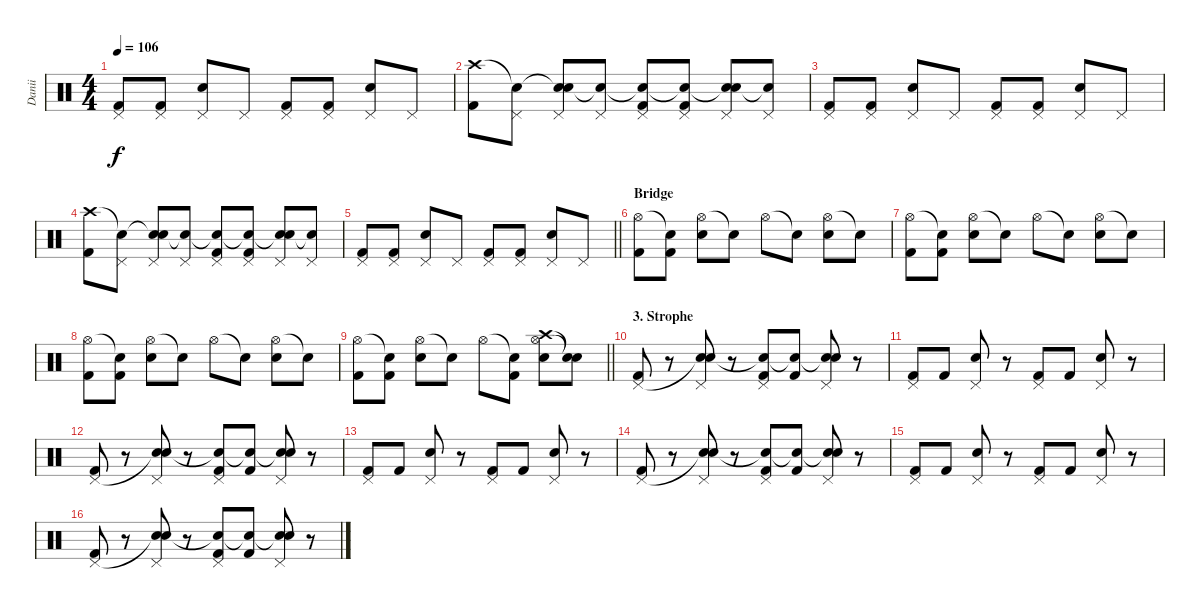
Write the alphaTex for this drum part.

\track ("Danii" "Danii") {instrument percussion}
\staff {score}
\articulation defaults
\ts (4 4)
\tempo 106
\clef neutral
\ks c
("Pedal Hi-Hat (hit)" "Kick (hit) 2").8{dy f} ("Pedal Hi-Hat (hit)" "Kick (hit) 2").8 ("Pedal Hi-Hat (hit)" "Snare (hit) 2").8 "Pedal Hi-Hat (hit)".8 ("Pedal Hi-Hat (hit)" "Kick (hit) 2").8 ("Pedal Hi-Hat (hit)" "Kick (hit) 2").8 ("Pedal Hi-Hat (hit)" "Snare (hit) 2").8 "Pedal Hi-Hat (hit)".8 |
("Crash high (hit)" "Kick (hit) 2").8{volume 16} ("Snare (hit)"{t} "Pedal Hi-Hat (hit)").8 ("Snare (hit)"{t} "Pedal Hi-Hat (hit)" "Snare (hit) 2").8 ("Snare (hit)"{t} "Pedal Hi-Hat (hit)").8 ("Snare (hit)"{t} "Pedal Hi-Hat (hit)" "Kick (hit) 2").8 ("Snare (hit)"{t} "Pedal Hi-Hat (hit)" "Kick (hit) 2").8 ("Snare (hit)"{t} "Pedal Hi-Hat (hit)" "Snare (hit) 2").8 ("Snare (hit)"{t} "Pedal Hi-Hat (hit)").8 |
("Pedal Hi-Hat (hit)" "Kick (hit) 2").8 ("Pedal Hi-Hat (hit)" "Kick (hit) 2").8 ("Pedal Hi-Hat (hit)" "Snare (hit) 2").8 "Pedal Hi-Hat (hit)".8 ("Pedal Hi-Hat (hit)" "Kick (hit) 2").8 ("Pedal Hi-Hat (hit)" "Kick (hit) 2").8 ("Pedal Hi-Hat (hit)" "Snare (hit) 2").8 "Pedal Hi-Hat (hit)".8 |
("Crash high (hit)" "Kick (hit) 2").8{volume 16} ("Snare (hit)"{t} "Pedal Hi-Hat (hit)").8 ("Snare (hit)"{t} "Pedal Hi-Hat (hit)" "Snare (hit) 2").8 ("Snare (hit)"{t} "Pedal Hi-Hat (hit)").8 ("Snare (hit)"{t} "Pedal Hi-Hat (hit)" "Kick (hit) 2").8 ("Snare (hit)"{t} "Pedal Hi-Hat (hit)" "Kick (hit) 2").8 ("Snare (hit)"{t} "Pedal Hi-Hat (hit)" "Snare (hit) 2").8 ("Snare (hit)"{t} "Pedal Hi-Hat (hit)").8 |
\barLineRight lightlight
("Pedal Hi-Hat (hit)" "Kick (hit) 2").8 ("Pedal Hi-Hat (hit)" "Kick (hit) 2").8 ("Pedal Hi-Hat (hit)" "Snare (hit) 2").8 "Pedal Hi-Hat (hit)".8 ("Pedal Hi-Hat (hit)" "Kick (hit) 2").8 ("Pedal Hi-Hat (hit)" "Kick (hit) 2").8 ("Pedal Hi-Hat (hit)" "Snare (hit) 2").8 "Pedal Hi-Hat (hit)".8 |
\section ("" "Bridge")
("Hi-Hat (open)" "Kick (hit) 2").8 ("Snare (hit)"{t} "Kick (hit) 2").8 ("Hi-Hat (open)" "Snare (hit) 2").8 "Snare (hit)"{t}.8 "Hi-Hat (open)".8 "Snare (hit)"{t}.8 ("Hi-Hat (open)" "Snare (hit) 2").8 "Snare (hit)"{t}.8 |
("Hi-Hat (open)" "Kick (hit) 2").8 ("Snare (hit)"{t} "Kick (hit) 2").8 ("Hi-Hat (open)" "Snare (hit) 2").8 "Snare (hit)"{t}.8 "Hi-Hat (open)".8 "Snare (hit)"{t}.8 ("Hi-Hat (open)" "Snare (hit) 2").8 "Snare (hit)"{t}.8 |
("Hi-Hat (open)" "Kick (hit) 2").8 ("Snare (hit)"{t} "Kick (hit) 2").8 ("Hi-Hat (open)" "Snare (hit) 2").8 "Snare (hit)"{t}.8 "Hi-Hat (open)".8 "Snare (hit)"{t}.8 ("Hi-Hat (open)" "Snare (hit) 2").8 "Snare (hit)"{t}.8 |
\barLineRight lightlight
("Hi-Hat (open)" "Kick (hit) 2").8 ("Snare (hit)"{t} "Kick (hit) 2").8 ("Hi-Hat (open)" "Snare (hit) 2").8 "Snare (hit)"{t}.8 "Hi-Hat (open)".8 ("Snare (hit)"{t} "Kick (hit) 2").8 ("Crash high (hit)" "Hi-Hat (open)" "Snare (hit) 2").8 ("Snare (hit)"{t} "Snare (hit)"{t}).8 |
\section ("" "3. Strophe")
("Pedal Hi-Hat (hit)" "Kick (hit) 2").8{volume 16} r.8 ("Snare (hit)"{t} "Pedal Hi-Hat (hit)" "Snare (hit) 2").8 r.8 ("Snare (hit)"{t} "Pedal Hi-Hat (hit)" "Kick (hit) 2").8 ("Snare (hit)"{t} "Kick (hit) 2").8 ("Snare (hit)"{t} "Pedal Hi-Hat (hit)" "Snare (hit) 2").8 r.8 |
("Pedal Hi-Hat (hit)" "Kick (hit) 2").8 "Kick (hit) 2".8 ("Pedal Hi-Hat (hit)" "Snare (hit) 2").8 r.8 ("Pedal Hi-Hat (hit)" "Kick (hit) 2").8 "Kick (hit) 2".8 ("Pedal Hi-Hat (hit)" "Snare (hit) 2").8 r.8 |
("Pedal Hi-Hat (hit)" "Kick (hit) 2").8{volume 16} r.8 ("Snare (hit)"{t} "Pedal Hi-Hat (hit)" "Snare (hit) 2").8 r.8 ("Snare (hit)"{t} "Pedal Hi-Hat (hit)" "Kick (hit) 2").8 ("Snare (hit)"{t} "Kick (hit) 2").8 ("Snare (hit)"{t} "Pedal Hi-Hat (hit)" "Snare (hit) 2").8 r.8 |
("Pedal Hi-Hat (hit)" "Kick (hit) 2").8 "Kick (hit) 2".8 ("Pedal Hi-Hat (hit)" "Snare (hit) 2").8 r.8 ("Pedal Hi-Hat (hit)" "Kick (hit) 2").8 "Kick (hit) 2".8 ("Pedal Hi-Hat (hit)" "Snare (hit) 2").8 r.8 |
("Pedal Hi-Hat (hit)" "Kick (hit) 2").8{volume 16} r.8 ("Snare (hit)"{t} "Pedal Hi-Hat (hit)" "Snare (hit) 2").8 r.8 ("Snare (hit)"{t} "Pedal Hi-Hat (hit)" "Kick (hit) 2").8 ("Snare (hit)"{t} "Kick (hit) 2").8 ("Snare (hit)"{t} "Pedal Hi-Hat (hit)" "Snare (hit) 2").8 r.8 |
("Pedal Hi-Hat (hit)" "Kick (hit) 2").8 "Kick (hit) 2".8 ("Pedal Hi-Hat (hit)" "Snare (hit) 2").8 r.8 ("Pedal Hi-Hat (hit)" "Kick (hit) 2").8 "Kick (hit) 2".8 ("Pedal Hi-Hat (hit)" "Snare (hit) 2").8 r.8 |
("Pedal Hi-Hat (hit)" "Kick (hit) 2").8{volume 16} r.8 ("Snare (hit)"{t} "Pedal Hi-Hat (hit)" "Snare (hit) 2").8 r.8 ("Snare (hit)"{t} "Pedal Hi-Hat (hit)" "Kick (hit) 2").8 ("Snare (hit)"{t} "Kick (hit) 2").8 ("Snare (hit)"{t} "Pedal Hi-Hat (hit)" "Snare (hit) 2").8 r.8
